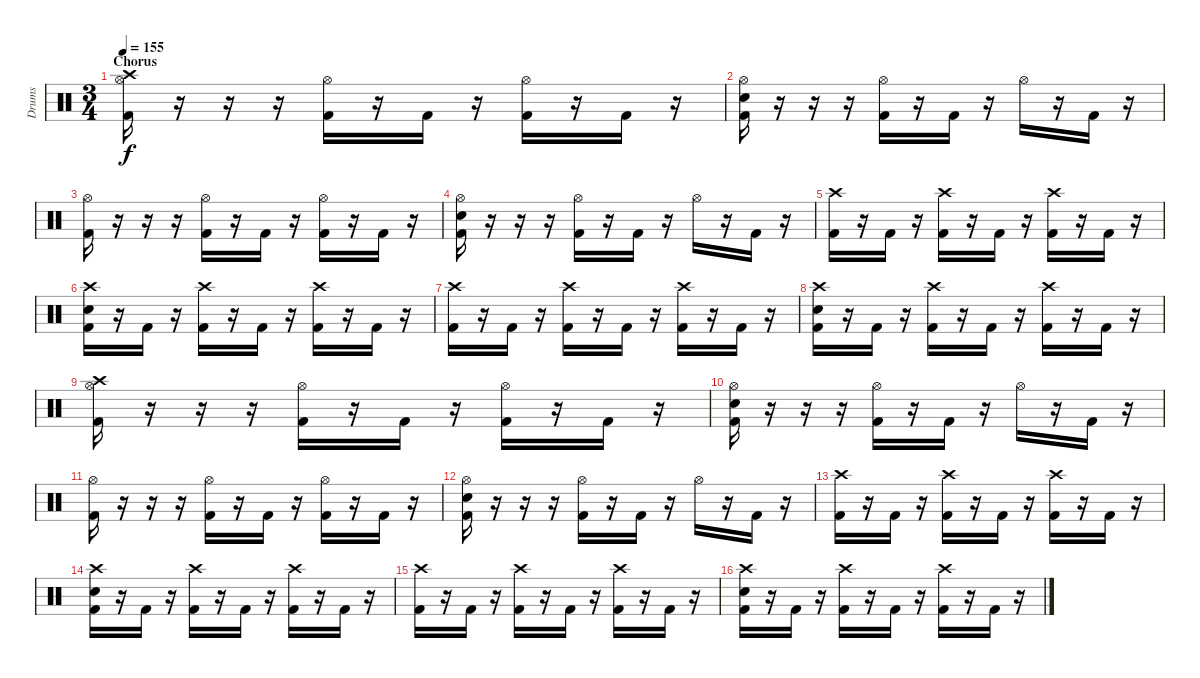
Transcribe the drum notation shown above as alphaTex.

\track ("Drums" "Drums") {instrument percussion}
\staff {score}
\articulation defaults
\ts (3 4)
\section ("" "Chorus")
\tempo 155
\clef neutral
\ks c
("Crash high (hit)" "Hi-Hat (open)" "Kick (hit) 2").16{dy f} r.16 r.16 r.16 ("Hi-Hat (open)" "Kick (hit) 2").16 r.16 "Kick (hit) 2".16 r.16 ("Hi-Hat (open)" "Kick (hit) 2").16 r.16 "Kick (hit) 2".16 r.16 |
("Hi-Hat (open)" "Snare (hit) 2" "Kick (hit) 2").16 r.16 r.16 r.16 ("Hi-Hat (open)" "Kick (hit) 2").16 r.16 "Kick (hit) 2".16 r.16 "Hi-Hat (open)".16 r.16 "Kick (hit) 2".16 r.16 |
("Hi-Hat (open)" "Kick (hit) 2").16 r.16 r.16 r.16 ("Hi-Hat (open)" "Kick (hit) 2").16 r.16 "Kick (hit) 2".16 r.16 ("Hi-Hat (open)" "Kick (hit) 2").16 r.16 "Kick (hit) 2".16 r.16 |
("Hi-Hat (open)" "Snare (hit) 2" "Kick (hit) 2").16 r.16 r.16 r.16 ("Hi-Hat (open)" "Kick (hit) 2").16 r.16 "Kick (hit) 2".16 r.16 "Hi-Hat (open)".16 r.16 "Kick (hit) 2".16 r.16 |
("Crash high (hit)" "Kick (hit) 2").16 r.16 "Kick (hit) 2".16 r.16 ("Crash high (hit)" "Kick (hit) 2").16 r.16 "Kick (hit) 2".16 r.16 ("Crash high (hit)" "Kick (hit) 2").16 r.16 "Kick (hit) 2".16 r.16 |
("Crash high (hit)" "Snare (hit) 2" "Kick (hit) 2").16 r.16 "Kick (hit) 2".16 r.16 ("Crash high (hit)" "Kick (hit) 2").16 r.16 "Kick (hit) 2".16 r.16 ("Crash high (hit)" "Kick (hit) 2").16 r.16 "Kick (hit) 2".16 r.16 |
("Crash high (hit)" "Kick (hit) 2").16 r.16 "Kick (hit) 2".16 r.16 ("Crash high (hit)" "Kick (hit) 2").16 r.16 "Kick (hit) 2".16 r.16 ("Crash high (hit)" "Kick (hit) 2").16 r.16 "Kick (hit) 2".16 r.16 |
("Crash high (hit)" "Snare (hit) 2" "Kick (hit) 2").16 r.16 "Kick (hit) 2".16 r.16 ("Crash high (hit)" "Kick (hit) 2").16 r.16 "Kick (hit) 2".16 r.16 ("Crash high (hit)" "Kick (hit) 2").16 r.16 "Kick (hit) 2".16 r.16 |
("Crash high (hit)" "Hi-Hat (open)" "Kick (hit) 2").16 r.16 r.16 r.16 ("Hi-Hat (open)" "Kick (hit) 2").16 r.16 "Kick (hit) 2".16 r.16 ("Hi-Hat (open)" "Kick (hit) 2").16 r.16 "Kick (hit) 2".16 r.16 |
("Hi-Hat (open)" "Snare (hit) 2" "Kick (hit) 2").16 r.16 r.16 r.16 ("Hi-Hat (open)" "Kick (hit) 2").16 r.16 "Kick (hit) 2".16 r.16 "Hi-Hat (open)".16 r.16 "Kick (hit) 2".16 r.16 |
("Hi-Hat (open)" "Kick (hit) 2").16 r.16 r.16 r.16 ("Hi-Hat (open)" "Kick (hit) 2").16 r.16 "Kick (hit) 2".16 r.16 ("Hi-Hat (open)" "Kick (hit) 2").16 r.16 "Kick (hit) 2".16 r.16 |
("Hi-Hat (open)" "Snare (hit) 2" "Kick (hit) 2").16 r.16 r.16 r.16 ("Hi-Hat (open)" "Kick (hit) 2").16 r.16 "Kick (hit) 2".16 r.16 "Hi-Hat (open)".16 r.16 "Kick (hit) 2".16 r.16 |
("Crash high (hit)" "Kick (hit) 2").16 r.16 "Kick (hit) 2".16 r.16 ("Crash high (hit)" "Kick (hit) 2").16 r.16 "Kick (hit) 2".16 r.16 ("Crash high (hit)" "Kick (hit) 2").16 r.16 "Kick (hit) 2".16 r.16 |
("Crash high (hit)" "Snare (hit) 2" "Kick (hit) 2").16 r.16 "Kick (hit) 2".16 r.16 ("Crash high (hit)" "Kick (hit) 2").16 r.16 "Kick (hit) 2".16 r.16 ("Crash high (hit)" "Kick (hit) 2").16 r.16 "Kick (hit) 2".16 r.16 |
("Crash high (hit)" "Kick (hit) 2").16 r.16 "Kick (hit) 2".16 r.16 ("Crash high (hit)" "Kick (hit) 2").16 r.16 "Kick (hit) 2".16 r.16 ("Crash high (hit)" "Kick (hit) 2").16 r.16 "Kick (hit) 2".16 r.16 |
("Crash high (hit)" "Snare (hit) 2" "Kick (hit) 2").16 r.16 "Kick (hit) 2".16 r.16 ("Crash high (hit)" "Kick (hit) 2").16 r.16 "Kick (hit) 2".16 r.16 ("Crash high (hit)" "Kick (hit) 2").16 r.16 "Kick (hit) 2".16 r.16
